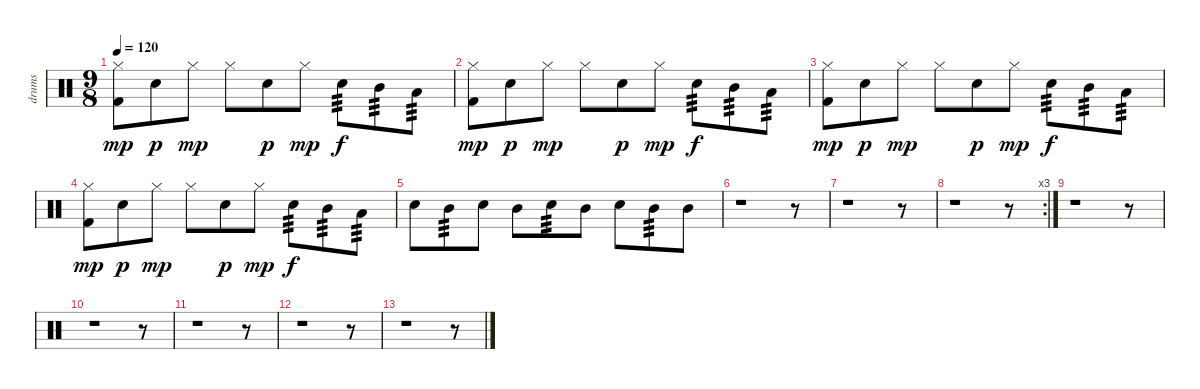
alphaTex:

\track ("drums" "drums") {instrument percussion}
\staff {score}
\articulation defaults
\ts (9 8)
\tempo 120
\clef neutral
\ks c
("Hi-Hat (closed)" "Kick (hit) 2").8{dy mp} "Snare (hit) 2".8{dy p} "Hi-Hat (closed)".8{dy mp} "Hi-Hat (closed)".8 "Snare (hit) 2".8{dy p} "Hi-Hat (closed)".8{dy mp} "Snare (hit) 2".8{tp 3 dy f} "Mid Tom (hit)".8{tp 3} "Low Tom (hit)".8{tp 3} |
("Hi-Hat (closed)" "Kick (hit) 2").8{dy mp} "Snare (hit) 2".8{dy p} "Hi-Hat (closed)".8{dy mp} "Hi-Hat (closed)".8 "Snare (hit) 2".8{dy p} "Hi-Hat (closed)".8{dy mp} "Snare (hit) 2".8{tp 3 dy f} "Mid Tom (hit)".8{tp 3} "Low Tom (hit)".8{tp 3} |
("Hi-Hat (closed)" "Kick (hit) 2").8{dy mp} "Snare (hit) 2".8{dy p} "Hi-Hat (closed)".8{dy mp} "Hi-Hat (closed)".8 "Snare (hit) 2".8{dy p} "Hi-Hat (closed)".8{dy mp} "Snare (hit) 2".8{tp 3 dy f} "Mid Tom (hit)".8{tp 3} "Low Tom (hit)".8{tp 3} |
("Hi-Hat (closed)" "Kick (hit) 2").8{dy mp} "Snare (hit) 2".8{dy p} "Hi-Hat (closed)".8{dy mp} "Hi-Hat (closed)".8 "Snare (hit) 2".8{dy p} "Hi-Hat (closed)".8{dy mp} "Snare (hit) 2".8{tp 3 dy f} "Mid Tom (hit)".8{tp 3} "Low Tom (hit)".8{tp 3} |
"Snare (hit) 2".8 "Mid Tom (hit)".8{tp 3} "Snare (hit) 2".8 "Mid Tom (hit)".8 "Snare (hit) 2".8{tp 3} "Mid Tom (hit)".8 "Snare (hit) 2".8 "Mid Tom (hit)".8{tp 3} "Mid Tom (hit)".8 |
r.1 r.8 |
r.1 r.8 |
\rc 3
r.1 r.8 |
r.1 r.8 |
r.1 r.8 |
r.1 r.8 |
r.1 r.8 |
r.1 r.8
